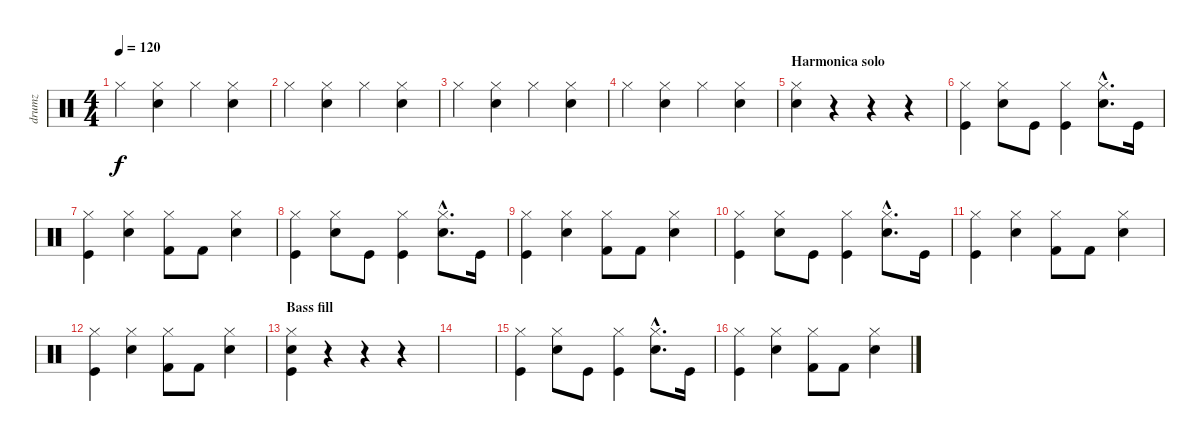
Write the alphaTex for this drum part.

\track ("drumz" "drumz") {instrument percussion}
\staff {score}
\articulation defaults
\ts (4 4)
\tempo 120
\clef neutral
\ks c "Hi-Hat (closed)".4{dy f}
("Snare (hit) 2" "Hi-Hat (closed)").4 "Hi-Hat (closed)".4 ("Snare (hit) 2" "Hi-Hat (closed)").4 |
"Hi-Hat (closed)".4 ("Snare (hit) 2" "Hi-Hat (closed)").4 "Hi-Hat (closed)".4 ("Snare (hit) 2" "Hi-Hat (closed)").4 |
"Hi-Hat (closed)".4 ("Snare (hit) 2" "Hi-Hat (closed)").4 "Hi-Hat (closed)".4 ("Snare (hit) 2" "Hi-Hat (closed)").4 |
"Hi-Hat (closed)".4 ("Snare (hit) 2" "Hi-Hat (closed)").4 "Hi-Hat (closed)".4 ("Snare (hit) 2" "Hi-Hat (closed)").4 |
\section ("" "Harmonica solo")
("Snare (hit) 2" "Hi-Hat (closed)").4 r.4 r.4 r.4 |
("Kick (hit)" "Hi-Hat (closed)").4 ("Snare (hit) 2" "Hi-Hat (closed)").8 "Kick (hit)".8 ("Kick (hit)" "Hi-Hat (closed)").4 ("Snare (hit) 2"{hac} "Hi-Hat (closed)"{hac}).8{d} "Kick (hit)".16 |
("Kick (hit)" "Hi-Hat (closed)").4 ("Snare (hit) 2" "Hi-Hat (closed)").4 ("Kick (hit) 2" "Hi-Hat (closed)").8 "Kick (hit) 2".8 ("Snare (hit) 2" "Hi-Hat (closed)").4 |
("Kick (hit)" "Hi-Hat (closed)").4 ("Snare (hit) 2" "Hi-Hat (closed)").8 "Kick (hit)".8 ("Kick (hit)" "Hi-Hat (closed)").4 ("Snare (hit) 2"{hac} "Hi-Hat (closed)"{hac}).8{d} "Kick (hit)".16 |
("Kick (hit)" "Hi-Hat (closed)").4 ("Snare (hit) 2" "Hi-Hat (closed)").4 ("Kick (hit) 2" "Hi-Hat (closed)").8 "Kick (hit) 2".8 ("Snare (hit) 2" "Hi-Hat (closed)").4 |
("Kick (hit)" "Hi-Hat (closed)").4 ("Snare (hit) 2" "Hi-Hat (closed)").8 "Kick (hit)".8 ("Kick (hit)" "Hi-Hat (closed)").4 ("Snare (hit) 2"{hac} "Hi-Hat (closed)"{hac}).8{d} "Kick (hit)".16 |
("Kick (hit)" "Hi-Hat (closed)").4 ("Snare (hit) 2" "Hi-Hat (closed)").4 ("Kick (hit) 2" "Hi-Hat (closed)").8 "Kick (hit) 2".8 ("Snare (hit) 2" "Hi-Hat (closed)").4 |
("Kick (hit)" "Hi-Hat (closed)").4 ("Snare (hit) 2" "Hi-Hat (closed)").4 ("Kick (hit) 2" "Hi-Hat (closed)").8 "Kick (hit) 2".8 ("Snare (hit) 2" "Hi-Hat (closed)").4 |
\section ("" "Bass fill")
("Snare (hit) 2" "Kick (hit)" "Hi-Hat (closed)").4 r.4 r.4 r.4 |
|
("Kick (hit)" "Hi-Hat (closed)").4 ("Snare (hit) 2" "Hi-Hat (closed)").8 "Kick (hit)".8 ("Kick (hit)" "Hi-Hat (closed)").4 ("Snare (hit) 2"{hac} "Hi-Hat (closed)"{hac}).8{d} "Kick (hit)".16 |
("Kick (hit)" "Hi-Hat (closed)").4 ("Snare (hit) 2" "Hi-Hat (closed)").4 ("Kick (hit) 2" "Hi-Hat (closed)").8 "Kick (hit) 2".8 ("Snare (hit) 2" "Hi-Hat (closed)").4
